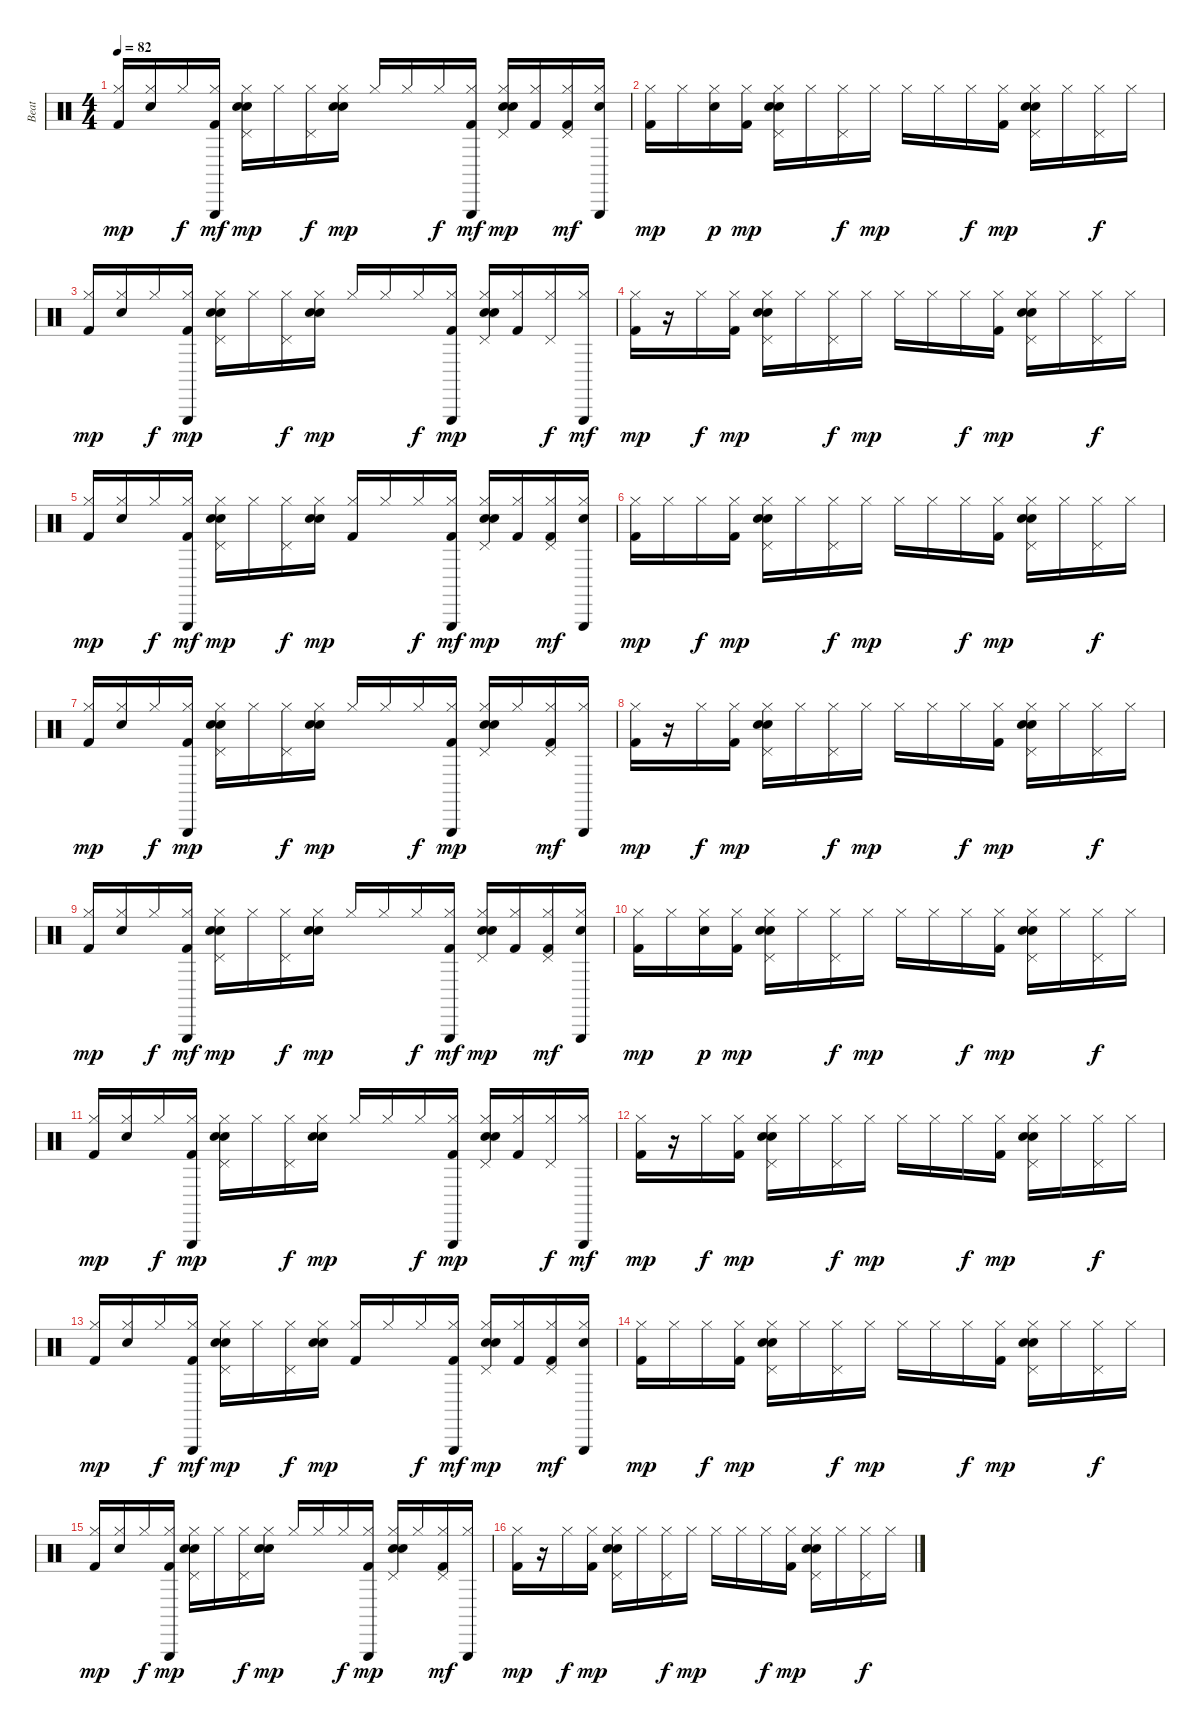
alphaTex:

\track ("Beat" "Beat") {instrument percussion}
\staff {score}
\articulation defaults
\ts (4 4)
\tempo 82
\clef neutral
\ks c
("Kick (hit) 2" "Hi-Hat (closed)").16{dy mp} ("Hand Clap (hit)" "Hi-Hat (closed)").16 "Hi-Hat (closed)".16{dy f} ("Kick (hit) 2" "Hi-Hat (closed)" "Triangle (hit)").16{dy mf} ("Pedal Hi-Hat (hit)" "Hi-Hat (closed)" "Hand Clap (hit)" "Electric Snare (hit)").16{dy mp} "Hi-Hat (closed)".16 ("Pedal Hi-Hat (hit)" "Hi-Hat (closed)").16{dy f} ("Electric Snare (hit)" "Hi-Hat (closed)" "Hand Clap (hit)").16{dy mp} "Hi-Hat (closed)".16 "Hi-Hat (closed)".16 "Hi-Hat (closed)".16{dy f} ("Kick (hit) 2" "Hi-Hat (closed)" "Triangle (hit)").16{dy mf} ("Pedal Hi-Hat (hit)" "Hi-Hat (closed)" "Hand Clap (hit)" "Electric Snare (hit)").16{dy mp} ("Kick (hit) 2" "Hi-Hat (closed)").16 ("Kick (hit) 2" "Pedal Hi-Hat (hit)" "Hi-Hat (closed)").16{dy mf} ("Hand Clap (hit)" "Hi-Hat (closed)" "Triangle (hit)").16 |
("Kick (hit) 2" "Hi-Hat (closed)").16{dy mp} "Hi-Hat (closed)".16 ("Hand Clap (hit)" "Hi-Hat (closed)").16{dy p} ("Kick (hit) 2" "Hi-Hat (closed)").16{dy mp} ("Pedal Hi-Hat (hit)" "Hi-Hat (closed)" "Hand Clap (hit)" "Electric Snare (hit)").16 "Hi-Hat (closed)".16 ("Pedal Hi-Hat (hit)" "Hi-Hat (closed)").16{dy f} "Hi-Hat (closed)".16{dy mp} "Hi-Hat (closed)".16 "Hi-Hat (closed)".16 "Hi-Hat (closed)".16{dy f} ("Kick (hit) 2" "Hi-Hat (closed)").16{dy mp} ("Pedal Hi-Hat (hit)" "Hi-Hat (closed)" "Hand Clap (hit)" "Electric Snare (hit)").16 "Hi-Hat (closed)".16 ("Pedal Hi-Hat (hit)" "Hi-Hat (closed)").16{dy f} "Hi-Hat (closed)".16 |
("Kick (hit) 2" "Hi-Hat (closed)").16{dy mp} ("Hand Clap (hit)" "Hi-Hat (closed)").16 "Hi-Hat (closed)".16{dy f} ("Kick (hit) 2" "Triangle (hit)" "Hi-Hat (closed)").16{dy mp} ("Pedal Hi-Hat (hit)" "Hi-Hat (closed)" "Hand Clap (hit)" "Electric Snare (hit)").16 "Hi-Hat (closed)".16 ("Pedal Hi-Hat (hit)" "Hi-Hat (closed)").16{dy f} ("Electric Snare (hit)" "Hi-Hat (closed)" "Hand Clap (hit)").16{dy mp} "Hi-Hat (closed)".16 "Hi-Hat (closed)".16 "Hi-Hat (closed)".16{dy f} ("Kick (hit) 2" "Triangle (hit)" "Hi-Hat (closed)").16{dy mp} ("Pedal Hi-Hat (hit)" "Hi-Hat (closed)" "Hand Clap (hit)" "Electric Snare (hit)").16 ("Kick (hit) 2" "Hi-Hat (closed)").16 ("Pedal Hi-Hat (hit)" "Hi-Hat (closed)").16{dy f} ("Triangle (hit)" "Hi-Hat (closed)").16{dy mf} |
("Kick (hit) 2" "Hi-Hat (closed)").16{dy mp} r.16 "Hi-Hat (closed)".16{dy f} ("Kick (hit) 2" "Hi-Hat (closed)").16{dy mp} ("Pedal Hi-Hat (hit)" "Hi-Hat (closed)" "Hand Clap (hit)" "Electric Snare (hit)").16 "Hi-Hat (closed)".16 ("Pedal Hi-Hat (hit)" "Hi-Hat (closed)").16{dy f} "Hi-Hat (closed)".16{dy mp} "Hi-Hat (closed)".16 "Hi-Hat (closed)".16 "Hi-Hat (closed)".16{dy f} ("Kick (hit) 2" "Hi-Hat (closed)").16{dy mp} ("Pedal Hi-Hat (hit)" "Hi-Hat (closed)" "Hand Clap (hit)" "Electric Snare (hit)").16 "Hi-Hat (closed)".16 ("Pedal Hi-Hat (hit)" "Hi-Hat (closed)").16{dy f} "Hi-Hat (closed)".16 |
("Kick (hit) 2" "Hi-Hat (closed)").16{dy mp} ("Hand Clap (hit)" "Hi-Hat (closed)").16 "Hi-Hat (closed)".16{dy f} ("Kick (hit) 2" "Hi-Hat (closed)" "Triangle (hit)").16{dy mf} ("Pedal Hi-Hat (hit)" "Hi-Hat (closed)" "Hand Clap (hit)" "Electric Snare (hit)").16{dy mp} "Hi-Hat (closed)".16 ("Pedal Hi-Hat (hit)" "Hi-Hat (closed)").16{dy f} ("Electric Snare (hit)" "Hi-Hat (closed)" "Hand Clap (hit)").16{dy mp} ("Kick (hit) 2" "Hi-Hat (closed)").16 "Hi-Hat (closed)".16 "Hi-Hat (closed)".16{dy f} ("Kick (hit) 2" "Hi-Hat (closed)" "Triangle (hit)").16{dy mf} ("Pedal Hi-Hat (hit)" "Hi-Hat (closed)" "Hand Clap (hit)" "Electric Snare (hit)").16{dy mp} ("Kick (hit) 2" "Hi-Hat (closed)").16 ("Kick (hit) 2" "Pedal Hi-Hat (hit)" "Hi-Hat (closed)").16{dy mf} ("Hand Clap (hit)" "Hi-Hat (closed)" "Triangle (hit)").16 |
("Kick (hit) 2" "Hi-Hat (closed)").16{dy mp} "Hi-Hat (closed)".16 "Hi-Hat (closed)".16{dy f} ("Kick (hit) 2" "Hi-Hat (closed)").16{dy mp} ("Pedal Hi-Hat (hit)" "Hi-Hat (closed)" "Hand Clap (hit)" "Electric Snare (hit)").16 "Hi-Hat (closed)".16 ("Pedal Hi-Hat (hit)" "Hi-Hat (closed)").16{dy f} "Hi-Hat (closed)".16{dy mp} "Hi-Hat (closed)".16 "Hi-Hat (closed)".16 "Hi-Hat (closed)".16{dy f} ("Kick (hit) 2" "Hi-Hat (closed)").16{dy mp} ("Pedal Hi-Hat (hit)" "Hi-Hat (closed)" "Hand Clap (hit)" "Electric Snare (hit)").16 "Hi-Hat (closed)".16 ("Pedal Hi-Hat (hit)" "Hi-Hat (closed)").16{dy f} "Hi-Hat (closed)".16 |
("Kick (hit) 2" "Hi-Hat (closed)").16{dy mp} ("Hand Clap (hit)" "Hi-Hat (closed)").16 "Hi-Hat (closed)".16{dy f} ("Kick (hit) 2" "Triangle (hit)" "Hi-Hat (closed)").16{dy mp} ("Pedal Hi-Hat (hit)" "Hi-Hat (closed)" "Hand Clap (hit)" "Electric Snare (hit)").16 "Hi-Hat (closed)".16 ("Pedal Hi-Hat (hit)" "Hi-Hat (closed)").16{dy f} ("Electric Snare (hit)" "Hi-Hat (closed)" "Hand Clap (hit)").16{dy mp} "Hi-Hat (closed)".16 "Hi-Hat (closed)".16 "Hi-Hat (closed)".16{dy f} ("Kick (hit) 2" "Triangle (hit)" "Hi-Hat (closed)").16{dy mp} ("Pedal Hi-Hat (hit)" "Hi-Hat (closed)" "Hand Clap (hit)" "Electric Snare (hit)").16 "Hi-Hat (closed)".16 ("Kick (hit) 2" "Pedal Hi-Hat (hit)" "Hi-Hat (closed)").16{dy mf} ("Triangle (hit)" "Hi-Hat (closed)").16 |
("Kick (hit) 2" "Hi-Hat (closed)").16{dy mp} r.16 "Hi-Hat (closed)".16{dy f} ("Kick (hit) 2" "Hi-Hat (closed)").16{dy mp} ("Pedal Hi-Hat (hit)" "Hi-Hat (closed)" "Hand Clap (hit)" "Electric Snare (hit)").16 "Hi-Hat (closed)".16 ("Pedal Hi-Hat (hit)" "Hi-Hat (closed)").16{dy f} "Hi-Hat (closed)".16{dy mp} "Hi-Hat (closed)".16 "Hi-Hat (closed)".16 "Hi-Hat (closed)".16{dy f} ("Kick (hit) 2" "Hi-Hat (closed)").16{dy mp} ("Pedal Hi-Hat (hit)" "Hi-Hat (closed)" "Hand Clap (hit)" "Electric Snare (hit)").16 "Hi-Hat (closed)".16 ("Pedal Hi-Hat (hit)" "Hi-Hat (closed)").16{dy f} "Hi-Hat (closed)".16 |
("Kick (hit) 2" "Hi-Hat (closed)").16{dy mp} ("Hand Clap (hit)" "Hi-Hat (closed)").16 "Hi-Hat (closed)".16{dy f} ("Kick (hit) 2" "Hi-Hat (closed)" "Triangle (hit)").16{dy mf} ("Pedal Hi-Hat (hit)" "Hi-Hat (closed)" "Hand Clap (hit)" "Electric Snare (hit)").16{dy mp} "Hi-Hat (closed)".16 ("Pedal Hi-Hat (hit)" "Hi-Hat (closed)").16{dy f} ("Electric Snare (hit)" "Hi-Hat (closed)" "Hand Clap (hit)").16{dy mp} "Hi-Hat (closed)".16 "Hi-Hat (closed)".16 "Hi-Hat (closed)".16{dy f} ("Kick (hit) 2" "Hi-Hat (closed)" "Triangle (hit)").16{dy mf} ("Pedal Hi-Hat (hit)" "Hi-Hat (closed)" "Hand Clap (hit)" "Electric Snare (hit)").16{dy mp} ("Kick (hit) 2" "Hi-Hat (closed)").16 ("Kick (hit) 2" "Pedal Hi-Hat (hit)" "Hi-Hat (closed)").16{dy mf} ("Hand Clap (hit)" "Hi-Hat (closed)" "Triangle (hit)").16 |
("Kick (hit) 2" "Hi-Hat (closed)").16{dy mp} "Hi-Hat (closed)".16 ("Hand Clap (hit)" "Hi-Hat (closed)").16{dy p} ("Kick (hit) 2" "Hi-Hat (closed)").16{dy mp} ("Pedal Hi-Hat (hit)" "Hi-Hat (closed)" "Hand Clap (hit)" "Electric Snare (hit)").16 "Hi-Hat (closed)".16 ("Pedal Hi-Hat (hit)" "Hi-Hat (closed)").16{dy f} "Hi-Hat (closed)".16{dy mp} "Hi-Hat (closed)".16 "Hi-Hat (closed)".16 "Hi-Hat (closed)".16{dy f} ("Kick (hit) 2" "Hi-Hat (closed)").16{dy mp} ("Pedal Hi-Hat (hit)" "Hi-Hat (closed)" "Hand Clap (hit)" "Electric Snare (hit)").16 "Hi-Hat (closed)".16 ("Pedal Hi-Hat (hit)" "Hi-Hat (closed)").16{dy f} "Hi-Hat (closed)".16 |
("Kick (hit) 2" "Hi-Hat (closed)").16{dy mp} ("Hand Clap (hit)" "Hi-Hat (closed)").16 "Hi-Hat (closed)".16{dy f} ("Kick (hit) 2" "Triangle (hit)" "Hi-Hat (closed)").16{dy mp} ("Pedal Hi-Hat (hit)" "Hi-Hat (closed)" "Hand Clap (hit)" "Electric Snare (hit)").16 "Hi-Hat (closed)".16 ("Pedal Hi-Hat (hit)" "Hi-Hat (closed)").16{dy f} ("Electric Snare (hit)" "Hi-Hat (closed)" "Hand Clap (hit)").16{dy mp} "Hi-Hat (closed)".16 "Hi-Hat (closed)".16 "Hi-Hat (closed)".16{dy f} ("Kick (hit) 2" "Triangle (hit)" "Hi-Hat (closed)").16{dy mp} ("Pedal Hi-Hat (hit)" "Hi-Hat (closed)" "Hand Clap (hit)" "Electric Snare (hit)").16 ("Kick (hit) 2" "Hi-Hat (closed)").16 ("Pedal Hi-Hat (hit)" "Hi-Hat (closed)").16{dy f} ("Triangle (hit)" "Hi-Hat (closed)").16{dy mf} |
("Kick (hit) 2" "Hi-Hat (closed)").16{dy mp} r.16 "Hi-Hat (closed)".16{dy f} ("Kick (hit) 2" "Hi-Hat (closed)").16{dy mp} ("Pedal Hi-Hat (hit)" "Hi-Hat (closed)" "Hand Clap (hit)" "Electric Snare (hit)").16 "Hi-Hat (closed)".16 ("Pedal Hi-Hat (hit)" "Hi-Hat (closed)").16{dy f} "Hi-Hat (closed)".16{dy mp} "Hi-Hat (closed)".16 "Hi-Hat (closed)".16 "Hi-Hat (closed)".16{dy f} ("Kick (hit) 2" "Hi-Hat (closed)").16{dy mp} ("Pedal Hi-Hat (hit)" "Hi-Hat (closed)" "Hand Clap (hit)" "Electric Snare (hit)").16 "Hi-Hat (closed)".16 ("Pedal Hi-Hat (hit)" "Hi-Hat (closed)").16{dy f} "Hi-Hat (closed)".16 |
("Kick (hit) 2" "Hi-Hat (closed)").16{dy mp} ("Hand Clap (hit)" "Hi-Hat (closed)").16 "Hi-Hat (closed)".16{dy f} ("Kick (hit) 2" "Hi-Hat (closed)" "Triangle (hit)").16{dy mf} ("Pedal Hi-Hat (hit)" "Hi-Hat (closed)" "Hand Clap (hit)" "Electric Snare (hit)").16{dy mp} "Hi-Hat (closed)".16 ("Pedal Hi-Hat (hit)" "Hi-Hat (closed)").16{dy f} ("Electric Snare (hit)" "Hi-Hat (closed)" "Hand Clap (hit)").16{dy mp} ("Kick (hit) 2" "Hi-Hat (closed)").16 "Hi-Hat (closed)".16 "Hi-Hat (closed)".16{dy f} ("Kick (hit) 2" "Hi-Hat (closed)" "Triangle (hit)").16{dy mf} ("Pedal Hi-Hat (hit)" "Hi-Hat (closed)" "Hand Clap (hit)" "Electric Snare (hit)").16{dy mp} ("Kick (hit) 2" "Hi-Hat (closed)").16 ("Kick (hit) 2" "Pedal Hi-Hat (hit)" "Hi-Hat (closed)").16{dy mf} ("Hand Clap (hit)" "Hi-Hat (closed)" "Triangle (hit)").16 |
("Kick (hit) 2" "Hi-Hat (closed)").16{dy mp} "Hi-Hat (closed)".16 "Hi-Hat (closed)".16{dy f} ("Kick (hit) 2" "Hi-Hat (closed)").16{dy mp} ("Pedal Hi-Hat (hit)" "Hi-Hat (closed)" "Hand Clap (hit)" "Electric Snare (hit)").16 "Hi-Hat (closed)".16 ("Pedal Hi-Hat (hit)" "Hi-Hat (closed)").16{dy f} "Hi-Hat (closed)".16{dy mp} "Hi-Hat (closed)".16 "Hi-Hat (closed)".16 "Hi-Hat (closed)".16{dy f} ("Kick (hit) 2" "Hi-Hat (closed)").16{dy mp} ("Pedal Hi-Hat (hit)" "Hi-Hat (closed)" "Hand Clap (hit)" "Electric Snare (hit)").16 "Hi-Hat (closed)".16 ("Pedal Hi-Hat (hit)" "Hi-Hat (closed)").16{dy f} "Hi-Hat (closed)".16 |
("Kick (hit) 2" "Hi-Hat (closed)").16{dy mp} ("Hand Clap (hit)" "Hi-Hat (closed)").16 "Hi-Hat (closed)".16{dy f} ("Kick (hit) 2" "Triangle (hit)" "Hi-Hat (closed)").16{dy mp} ("Pedal Hi-Hat (hit)" "Hi-Hat (closed)" "Hand Clap (hit)" "Electric Snare (hit)").16 "Hi-Hat (closed)".16 ("Pedal Hi-Hat (hit)" "Hi-Hat (closed)").16{dy f} ("Electric Snare (hit)" "Hi-Hat (closed)" "Hand Clap (hit)").16{dy mp} "Hi-Hat (closed)".16 "Hi-Hat (closed)".16 "Hi-Hat (closed)".16{dy f} ("Kick (hit) 2" "Triangle (hit)" "Hi-Hat (closed)").16{dy mp} ("Pedal Hi-Hat (hit)" "Hi-Hat (closed)" "Hand Clap (hit)" "Electric Snare (hit)").16 "Hi-Hat (closed)".16 ("Kick (hit) 2" "Pedal Hi-Hat (hit)" "Hi-Hat (closed)").16{dy mf} ("Triangle (hit)" "Hi-Hat (closed)").16 |
("Kick (hit) 2" "Hi-Hat (closed)").16{dy mp} r.16 "Hi-Hat (closed)".16{dy f} ("Kick (hit) 2" "Hi-Hat (closed)").16{dy mp} ("Pedal Hi-Hat (hit)" "Hi-Hat (closed)" "Hand Clap (hit)" "Electric Snare (hit)").16 "Hi-Hat (closed)".16 ("Pedal Hi-Hat (hit)" "Hi-Hat (closed)").16{dy f} "Hi-Hat (closed)".16{dy mp} "Hi-Hat (closed)".16 "Hi-Hat (closed)".16 "Hi-Hat (closed)".16{dy f} ("Kick (hit) 2" "Hi-Hat (closed)").16{dy mp} ("Pedal Hi-Hat (hit)" "Hi-Hat (closed)" "Hand Clap (hit)" "Electric Snare (hit)").16 "Hi-Hat (closed)".16 ("Pedal Hi-Hat (hit)" "Hi-Hat (closed)").16{dy f} "Hi-Hat (closed)".16
